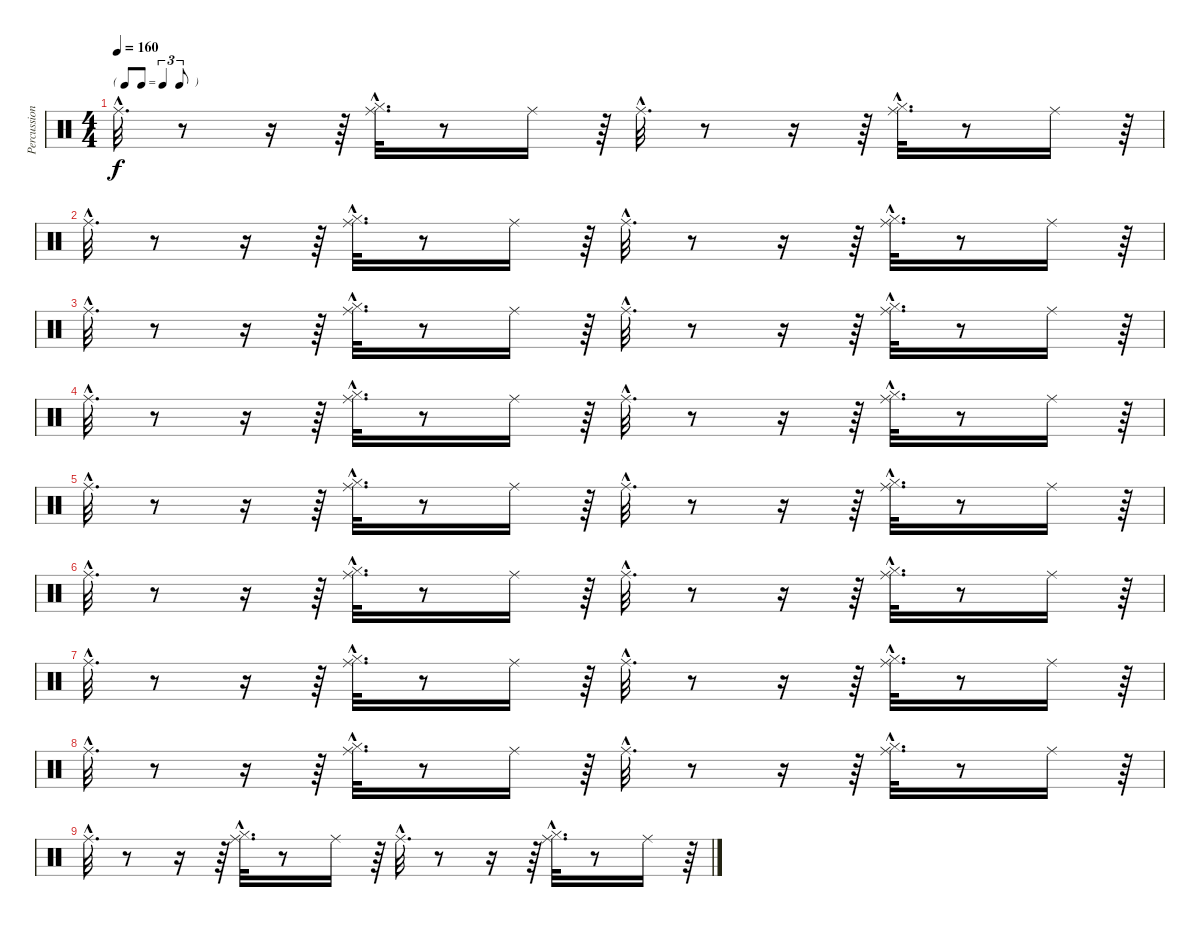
\track ("Percussions" "Percussion") {instrument percussion}
\staff {score}
\articulation defaults
\ts (4 4)
\tf triplet8th
\tempo 160
\clef neutral
\ks c "Ride (middle)"{hac}.32{d dy f}
r.8 r.16 r.64 ("Hi-Hat (closed)"{hac} "Ride (middle)"{hac}).32{d} r.8 "Ride (middle)".16 r.64 "Ride (middle)"{hac}.32{d} r.8 r.16 r.64 ("Hi-Hat (closed)"{hac} "Ride (middle)"{hac}).32{d} r.8 "Ride (middle)".16 r.64 |
"Ride (middle)"{hac}.32{d} r.8 r.16 r.64 ("Hi-Hat (closed)"{hac} "Ride (middle)"{hac}).32{d} r.8 "Ride (middle)".16 r.64 "Ride (middle)"{hac}.32{d} r.8 r.16 r.64 ("Hi-Hat (closed)"{hac} "Ride (middle)"{hac}).32{d} r.8 "Ride (middle)".16 r.64 |
"Ride (middle)"{hac}.32{d} r.8 r.16 r.64 ("Hi-Hat (closed)"{hac} "Ride (middle)"{hac}).32{d} r.8 "Ride (middle)".16 r.64 "Ride (middle)"{hac}.32{d} r.8 r.16 r.64 ("Hi-Hat (closed)"{hac} "Ride (middle)"{hac}).32{d} r.8 "Ride (middle)".16 r.64 |
"Ride (middle)"{hac}.32{d} r.8 r.16 r.64 ("Hi-Hat (closed)"{hac} "Ride (middle)"{hac}).32{d} r.8 "Ride (middle)".16 r.64 "Ride (middle)"{hac}.32{d} r.8 r.16 r.64 ("Hi-Hat (closed)"{hac} "Ride (middle)"{hac}).32{d} r.8 "Ride (middle)".16 r.64 |
"Ride (middle)"{hac}.32{d} r.8 r.16 r.64 ("Hi-Hat (closed)"{hac} "Ride (middle)"{hac}).32{d} r.8 "Ride (middle)".16 r.64 "Ride (middle)"{hac}.32{d} r.8 r.16 r.64 ("Hi-Hat (closed)"{hac} "Ride (middle)"{hac}).32{d} r.8 "Ride (middle)".16 r.64 |
"Ride (middle)"{hac}.32{d} r.8 r.16 r.64 ("Hi-Hat (closed)"{hac} "Ride (middle)"{hac}).32{d} r.8 "Ride (middle)".16 r.64 "Ride (middle)"{hac}.32{d} r.8 r.16 r.64 ("Hi-Hat (closed)"{hac} "Ride (middle)"{hac}).32{d} r.8 "Ride (middle)".16 r.64 |
"Ride (middle)"{hac}.32{d} r.8 r.16 r.64 ("Hi-Hat (closed)"{hac} "Ride (middle)"{hac}).32{d} r.8 "Ride (middle)".16 r.64 "Ride (middle)"{hac}.32{d} r.8 r.16 r.64 ("Hi-Hat (closed)"{hac} "Ride (middle)"{hac}).32{d} r.8 "Ride (middle)".16 r.64 |
"Ride (middle)"{hac}.32{d} r.8 r.16 r.64 ("Hi-Hat (closed)"{hac} "Ride (middle)"{hac}).32{d} r.8 "Ride (middle)".16 r.64 "Ride (middle)"{hac}.32{d} r.8 r.16 r.64 ("Hi-Hat (closed)"{hac} "Ride (middle)"{hac}).32{d} r.8 "Ride (middle)".16 r.64 |
"Ride (middle)"{hac}.32{d} r.8 r.16 r.64 ("Hi-Hat (closed)"{hac} "Ride (middle)"{hac}).32{d} r.8 "Ride (middle)".16 r.64 "Ride (middle)"{hac}.32{d} r.8 r.16 r.64 ("Hi-Hat (closed)"{hac} "Ride (middle)"{hac}).32{d} r.8 "Ride (middle)".16 r.64
